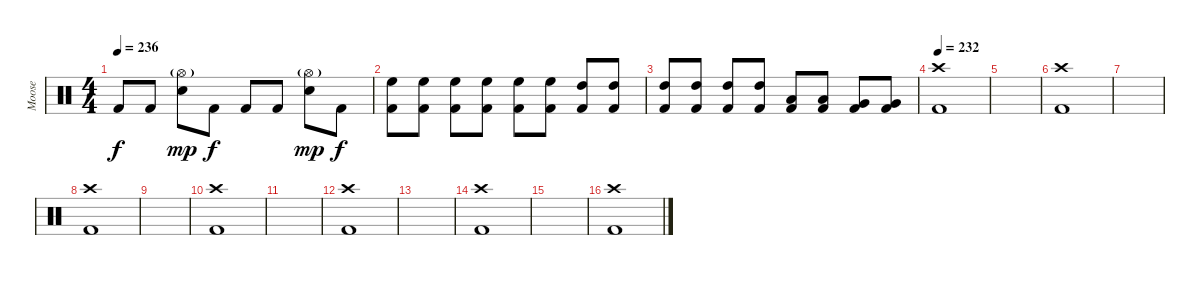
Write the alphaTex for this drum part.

\track ("Moose" "Moose") {instrument percussion}
\staff {score}
\articulation defaults
\ts (4 4)
\tempo 236
\clef neutral
\ks c "Kick (hit) 2".8{dy f} "Kick (hit) 2".8
("Hi-Hat (open)"{g} "Electric Snare (hit)").8{dy mp} "Kick (hit) 2".8{dy f} "Kick (hit) 2".8 "Kick (hit) 2".8 ("Hi-Hat (open)"{g} "Electric Snare (hit)").8{dy mp} "Kick (hit) 2".8{dy f} |
("High Floor Tom (hit)" "Kick (hit) 2").8 ("High Floor Tom (hit)" "Kick (hit) 2").8 ("High Floor Tom (hit)" "Kick (hit) 2").8 ("High Floor Tom (hit)" "Kick (hit) 2").8 ("High Floor Tom (hit)" "Kick (hit) 2").8 ("High Floor Tom (hit)" "Kick (hit) 2").8 ("High Tom (hit)" "Kick (hit) 2").8 ("High Tom (hit)" "Kick (hit) 2").8 |
("High Tom (hit)" "Kick (hit) 2").8 ("High Tom (hit)" "Kick (hit) 2").8 ("High Tom (hit)" "Kick (hit) 2").8 ("High Tom (hit)" "Kick (hit) 2").8 ("Low Tom (hit)" "Kick (hit) 2").8 ("Low Tom (hit)" "Kick (hit) 2").8 ("Very Low Tom (hit)" "Kick (hit) 2").8 ("Very Low Tom (hit)" "Kick (hit) 2").8 |
\tempo 232
("Crash high (hit)" "Kick (hit) 2").1 |
|
("Crash high (hit)" "Kick (hit) 2").1 |
|
("Crash high (hit)" "Kick (hit) 2").1 |
|
("Crash high (hit)" "Kick (hit) 2").1 |
|
("Crash high (hit)" "Kick (hit) 2").1 |
|
("Crash high (hit)" "Kick (hit) 2").1 |
|
("Crash high (hit)" "Kick (hit) 2").1
